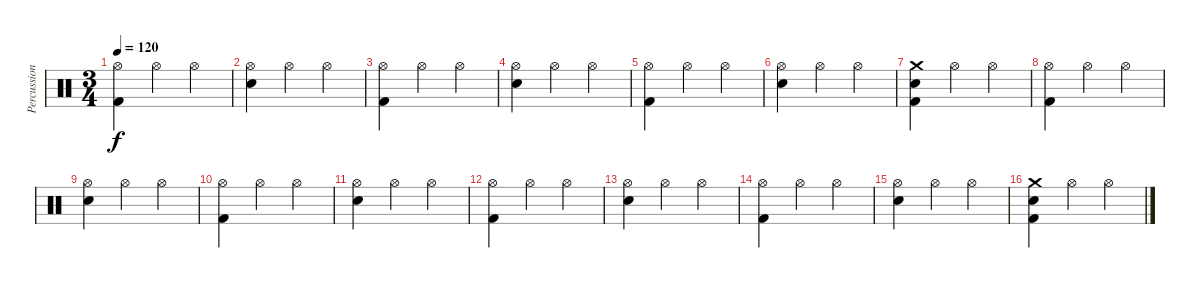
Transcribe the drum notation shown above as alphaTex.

\track ("Percussion" "Percussion") {instrument percussion}
\staff {score}
\articulation defaults
\ts (3 4)
\tempo 120
\clef neutral
\ks c
("Hi-Hat (open)" "Kick (hit) 2").4{dy f} "Hi-Hat (open)".4 "Hi-Hat (open)".4 |
("Hi-Hat (open)" "Electric Snare (hit)").4 "Hi-Hat (open)".4 "Hi-Hat (open)".4 |
("Hi-Hat (open)" "Kick (hit) 2").4 "Hi-Hat (open)".4 "Hi-Hat (open)".4 |
("Hi-Hat (open)" "Electric Snare (hit)").4 "Hi-Hat (open)".4 "Hi-Hat (open)".4 |
("Hi-Hat (open)" "Kick (hit) 2").4 "Hi-Hat (open)".4 "Hi-Hat (open)".4 |
("Hi-Hat (open)" "Electric Snare (hit)").4 "Hi-Hat (open)".4 "Hi-Hat (open)".4 |
("Crash medium (hit)" "Electric Snare (hit)" "Kick (hit) 2").4 "Hi-Hat (open)".4 "Hi-Hat (open)".4 |
("Hi-Hat (open)" "Kick (hit) 2").4 "Hi-Hat (open)".4 "Hi-Hat (open)".4 |
("Hi-Hat (open)" "Electric Snare (hit)").4 "Hi-Hat (open)".4 "Hi-Hat (open)".4 |
("Hi-Hat (open)" "Kick (hit) 2").4 "Hi-Hat (open)".4 "Hi-Hat (open)".4 |
("Hi-Hat (open)" "Electric Snare (hit)").4 "Hi-Hat (open)".4 "Hi-Hat (open)".4 |
("Hi-Hat (open)" "Kick (hit) 2").4 "Hi-Hat (open)".4 "Hi-Hat (open)".4 |
("Hi-Hat (open)" "Electric Snare (hit)").4 "Hi-Hat (open)".4 "Hi-Hat (open)".4 |
("Hi-Hat (open)" "Kick (hit) 2").4 "Hi-Hat (open)".4 "Hi-Hat (open)".4 |
("Hi-Hat (open)" "Electric Snare (hit)").4 "Hi-Hat (open)".4 "Hi-Hat (open)".4 |
("Crash medium (hit)" "Electric Snare (hit)" "Kick (hit) 2").4 "Hi-Hat (open)".4 "Hi-Hat (open)".4
